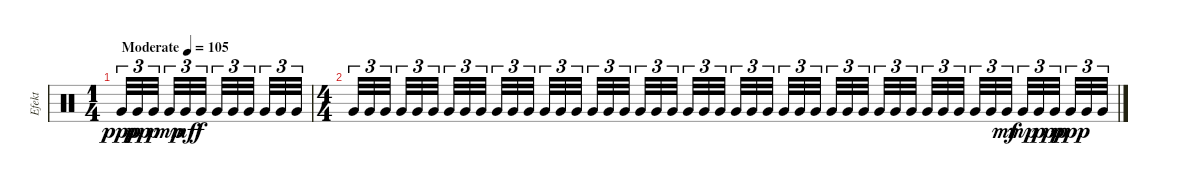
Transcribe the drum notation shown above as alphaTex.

\track ("Efekt" "Efekt") {instrument percussion}
\staff {score}
\articulation defaults
\ts (1 4)
\tempo (105 "Moderate")
\clef neutral
\ks c "Very Low Tom (hit)".32{tu (3 2) dy ppp} "Very Low Tom (hit)".32{tu (3 2) dy pp} "Very Low Tom (hit)".32{tu (3 2) dy p beam splitsecondary} "Very Low Tom (hit)".32{tu (3 2) dy mp} "Very Low Tom (hit)".32{tu (3 2) dy mf} "Very Low Tom (hit)".32{tu (3 2) dy f beam splitsecondary} "Very Low Tom (hit)".32{tu (3 2)} "Very Low Tom (hit)".32{tu (3 2)} "Very Low Tom (hit)".32{tu (3 2) beam splitsecondary} "Very Low Tom (hit)".32{tu (3 2)} "Very Low Tom (hit)".32{tu (3 2)} "Very Low Tom (hit)".32{tu (3 2)}
|
\ts (4 4)
"Very Low Tom (hit)".32{tu (3 2)} "Very Low Tom (hit)".32{tu (3 2)} "Very Low Tom (hit)".32{tu (3 2) beam splitsecondary} "Very Low Tom (hit)".32{tu (3 2)} "Very Low Tom (hit)".32{tu (3 2)} "Very Low Tom (hit)".32{tu (3 2) beam splitsecondary} "Very Low Tom (hit)".32{tu (3 2)} "Very Low Tom (hit)".32{tu (3 2)} "Very Low Tom (hit)".32{tu (3 2) beam splitsecondary} "Very Low Tom (hit)".32{tu (3 2)} "Very Low Tom (hit)".32{tu (3 2)} "Very Low Tom (hit)".32{tu (3 2)} "Very Low Tom (hit)".32{tu (3 2)} "Very Low Tom (hit)".32{tu (3 2)} "Very Low Tom (hit)".32{tu (3 2) beam splitsecondary} "Very Low Tom (hit)".32{tu (3 2)} "Very Low Tom (hit)".32{tu (3 2)} "Very Low Tom (hit)".32{tu (3 2) beam splitsecondary} "Very Low Tom (hit)".32{tu (3 2)} "Very Low Tom (hit)".32{tu (3 2)} "Very Low Tom (hit)".32{tu (3 2) beam splitsecondary} "Very Low Tom (hit)".32{tu (3 2)} "Very Low Tom (hit)".32{tu (3 2)} "Very Low Tom (hit)".32{tu (3 2)} "Very Low Tom (hit)".32{tu (3 2)} "Very Low Tom (hit)".32{tu (3 2)} "Very Low Tom (hit)".32{tu (3 2) beam splitsecondary} "Very Low Tom (hit)".32{tu (3 2)} "Very Low Tom (hit)".32{tu (3 2)} "Very Low Tom (hit)".32{tu (3 2) beam splitsecondary} "Very Low Tom (hit)".32{tu (3 2)} "Very Low Tom (hit)".32{tu (3 2)} "Very Low Tom (hit)".32{tu (3 2) beam splitsecondary} "Very Low Tom (hit)".32{tu (3 2)} "Very Low Tom (hit)".32{tu (3 2)} "Very Low Tom (hit)".32{tu (3 2)} "Very Low Tom (hit)".32{tu (3 2)} "Very Low Tom (hit)".32{tu (3 2)} "Very Low Tom (hit)".32{tu (3 2) beam splitsecondary} "Very Low Tom (hit)".32{tu (3 2)} "Very Low Tom (hit)".32{tu (3 2)} "Very Low Tom (hit)".32{tu (3 2) dy mf beam splitsecondary} "Very Low Tom (hit)".32{tu (3 2) dy mp} "Very Low Tom (hit)".32{tu (3 2) dy p} "Very Low Tom (hit)".32{tu (3 2) dy pp beam splitsecondary} "Very Low Tom (hit)".32{tu (3 2) dy ppp} "Very Low Tom (hit)".32{tu (3 2)} "Very Low Tom (hit)".32{tu (3 2)}
